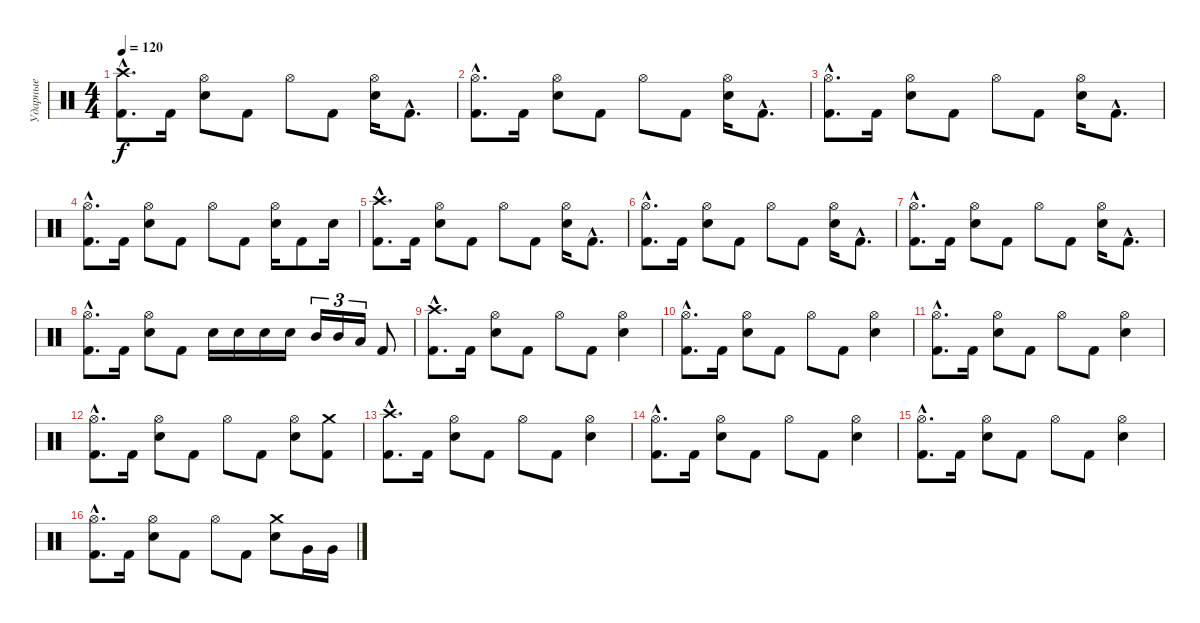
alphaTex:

\track ("Ударные" "Ударные") {instrument percussion}
\staff {score}
\articulation defaults
\ts (4 4)
\tempo 120
\clef neutral
\ks c
("Crash high (hit)"{hac} "Kick (hit) 2"{hac}).8{d dy f} "Kick (hit) 2".16 ("Hi-Hat (open)" "Electric Snare (hit)").8 "Kick (hit) 2".8 "Hi-Hat (open)".8 "Kick (hit) 2".8 ("Hi-Hat (open)" "Electric Snare (hit)").16 "Kick (hit) 2"{hac}.8{d} |
("Hi-Hat (open)"{hac} "Kick (hit) 2"{hac}).8{d} "Kick (hit) 2".16 ("Hi-Hat (open)" "Electric Snare (hit)").8 "Kick (hit) 2".8 "Hi-Hat (open)".8 "Kick (hit) 2".8 ("Hi-Hat (open)" "Electric Snare (hit)").16 "Kick (hit) 2"{hac}.8{d} |
("Hi-Hat (open)"{hac} "Kick (hit) 2"{hac}).8{d} "Kick (hit) 2".16 ("Hi-Hat (open)" "Electric Snare (hit)").8 "Kick (hit) 2".8 "Hi-Hat (open)".8 "Kick (hit) 2".8 ("Hi-Hat (open)" "Electric Snare (hit)").16 "Kick (hit) 2"{hac}.8{d} |
("Hi-Hat (open)"{hac} "Kick (hit) 2"{hac}).8{d} "Kick (hit) 2".16 ("Hi-Hat (open)" "Electric Snare (hit)").8 "Kick (hit) 2".8 "Hi-Hat (open)".8 "Kick (hit) 2".8 ("Hi-Hat (open)" "Electric Snare (hit)").16 "Kick (hit) 2".8 "Electric Snare (hit)".16 |
("Crash high (hit)"{hac} "Kick (hit) 2"{hac}).8{d} "Kick (hit) 2".16 ("Hi-Hat (open)" "Electric Snare (hit)").8 "Kick (hit) 2".8 "Hi-Hat (open)".8 "Kick (hit) 2".8 ("Hi-Hat (open)" "Electric Snare (hit)").16 "Kick (hit) 2"{hac}.8{d} |
("Hi-Hat (open)"{hac} "Kick (hit) 2"{hac}).8{d} "Kick (hit) 2".16 ("Hi-Hat (open)" "Electric Snare (hit)").8 "Kick (hit) 2".8 "Hi-Hat (open)".8 "Kick (hit) 2".8 ("Hi-Hat (open)" "Electric Snare (hit)").16 "Kick (hit) 2"{hac}.8{d} |
("Hi-Hat (open)"{hac} "Kick (hit) 2"{hac}).8{d} "Kick (hit) 2".16 ("Hi-Hat (open)" "Electric Snare (hit)").8 "Kick (hit) 2".8 "Hi-Hat (open)".8 "Kick (hit) 2".8 ("Hi-Hat (open)" "Electric Snare (hit)").16 "Kick (hit) 2"{hac}.8{d} |
("Hi-Hat (open)"{hac} "Kick (hit) 2"{hac}).8{d} "Kick (hit) 2".16 ("Hi-Hat (open)" "Electric Snare (hit)").8 "Kick (hit) 2".8 "Electric Snare (hit)".16 "Electric Snare (hit)".16 "Electric Snare (hit)".16 "Electric Snare (hit)".16 "Mid Tom (hit)".16{tu (3 2)} "Mid Tom (hit)".16{tu (3 2)} "Low Tom (hit)".16{tu (3 2)} "Kick (hit) 2".8 |
("Crash high (hit)"{hac} "Kick (hit) 2"{hac}).8{d} "Kick (hit) 2".16 ("Hi-Hat (open)" "Electric Snare (hit)").8 "Kick (hit) 2".8 "Hi-Hat (open)".8 "Kick (hit) 2".8 ("Hi-Hat (open)" "Electric Snare (hit)").4 |
("Hi-Hat (open)"{hac} "Kick (hit) 2"{hac}).8{d} "Kick (hit) 2".16 ("Hi-Hat (open)" "Electric Snare (hit)").8 "Kick (hit) 2".8 "Hi-Hat (open)".8 "Kick (hit) 2".8 ("Hi-Hat (open)" "Electric Snare (hit)").4 |
("Hi-Hat (open)"{hac} "Kick (hit) 2"{hac}).8{d} "Kick (hit) 2".16 ("Hi-Hat (open)" "Electric Snare (hit)").8 "Kick (hit) 2".8 "Hi-Hat (open)".8 "Kick (hit) 2".8 ("Hi-Hat (open)" "Electric Snare (hit)").4 |
("Hi-Hat (open)"{hac} "Kick (hit) 2"{hac}).8{d} "Kick (hit) 2".16 ("Hi-Hat (open)" "Electric Snare (hit)").8 "Kick (hit) 2".8 "Hi-Hat (open)".8 "Kick (hit) 2".8 ("Hi-Hat (open)" "Electric Snare (hit)").8 ("Crash medium (hit)" "Kick (hit) 2").8 |
("Crash high (hit)"{hac} "Kick (hit) 2"{hac}).8{d} "Kick (hit) 2".16 ("Hi-Hat (open)" "Electric Snare (hit)").8 "Kick (hit) 2".8 "Hi-Hat (open)".8 "Kick (hit) 2".8 ("Hi-Hat (open)" "Electric Snare (hit)").4 |
("Hi-Hat (open)"{hac} "Kick (hit) 2"{hac}).8{d} "Kick (hit) 2".16 ("Hi-Hat (open)" "Electric Snare (hit)").8 "Kick (hit) 2".8 "Hi-Hat (open)".8 "Kick (hit) 2".8 ("Hi-Hat (open)" "Electric Snare (hit)").4 |
("Hi-Hat (open)"{hac} "Kick (hit) 2"{hac}).8{d} "Kick (hit) 2".16 ("Hi-Hat (open)" "Electric Snare (hit)").8 "Kick (hit) 2".8 "Hi-Hat (open)".8 "Kick (hit) 2".8 ("Hi-Hat (open)" "Electric Snare (hit)").4 |
("Hi-Hat (open)"{hac} "Kick (hit) 2"{hac}).8{d} "Kick (hit) 2".16 ("Hi-Hat (open)" "Electric Snare (hit)").8 "Kick (hit) 2".8 "Hi-Hat (open)".8 "Kick (hit) 2".8 ("Crash medium (hit)" "Electric Snare (hit)").8 "Very Low Tom (hit)".16 "Very Low Tom (hit)".16
